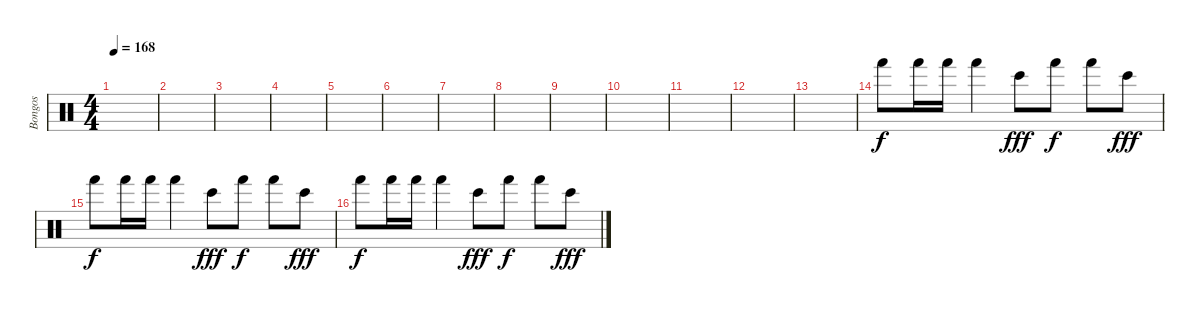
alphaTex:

\track ("Bongos" "Bongos") {instrument percussion}
\staff {score}
\articulation defaults
\ts (4 4)
\tempo 168
\clef neutral
\ks c
|
|
|
|
|
|
|
|
|
|
|
|
|
"Hand (hit)".8 "Hand (hit)".16 "Hand (hit)".16 "Hand (hit)".4 "Bongo High (hit)".8{dy fff} "Hand (hit)".8{dy f} "Hand (hit)".8 "Bongo High (hit)".8{dy fff} |
"Hand (hit)".8{dy f} "Hand (hit)".16 "Hand (hit)".16 "Hand (hit)".4 "Bongo High (hit)".8{dy fff} "Hand (hit)".8{dy f} "Hand (hit)".8 "Bongo High (hit)".8{dy fff} |
"Hand (hit)".8{dy f} "Hand (hit)".16 "Hand (hit)".16 "Hand (hit)".4 "Bongo High (hit)".8{dy fff} "Hand (hit)".8{dy f} "Hand (hit)".8 "Bongo High (hit)".8{dy fff}
